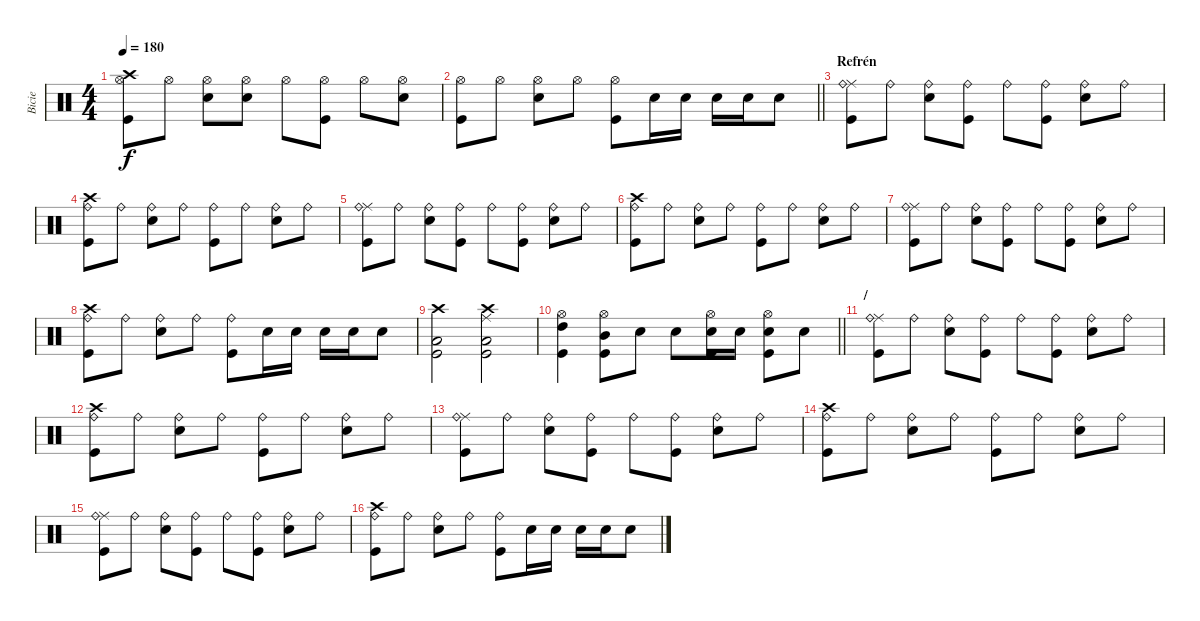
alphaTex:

\track ("Bicie" "Bicie") {instrument percussion}
\staff {score}
\articulation defaults
\ts (4 4)
\tempo 180
\clef neutral
\ks c
("Crash high (hit)" "Hi-Hat (open)" "Kick (hit)").8{dy f} "Hi-Hat (open)".8 ("Hi-Hat (open)" "Snare (hit) 2").8 ("Hi-Hat (open)" "Snare (hit) 2").8 "Hi-Hat (open)".8 ("Hi-Hat (open)" "Kick (hit)").8 "Hi-Hat (open)".8 ("Hi-Hat (open)" "Snare (hit) 2").8 |
\barLineRight lightlight
("Hi-Hat (open)" "Kick (hit)").8 "Hi-Hat (open)".8 ("Hi-Hat (open)" "Snare (hit) 2").8 "Hi-Hat (open)".8 ("Hi-Hat (open)" "Kick (hit)").8 "Snare (hit) 2".16 "Snare (hit) 2".16 "Snare (hit) 2".16 "Snare (hit) 2".16 "Snare (hit) 2".8 |
\section ("" "Refrén")
("Ride (middle)" "Ride (bell)" "Kick (hit)").8 "Ride (bell)".8 ("Ride (bell)" "Snare (hit) 2").8 ("Ride (bell)" "Kick (hit)").8 "Ride (bell)".8 ("Ride (bell)" "Kick (hit)").8 ("Ride (bell)" "Snare (hit) 2").8 "Ride (bell)".8 |
("Crash high (hit)" "Ride (bell)" "Kick (hit)").8 "Ride (bell)".8 ("Ride (bell)" "Snare (hit) 2").8 "Ride (bell)".8 ("Ride (bell)" "Kick (hit)").8 "Ride (bell)".8 ("Ride (bell)" "Snare (hit) 2").8 "Ride (bell)".8 |
("Ride (middle)" "Ride (bell)" "Kick (hit)").8 "Ride (bell)".8 ("Ride (bell)" "Snare (hit) 2").8 ("Ride (bell)" "Kick (hit)").8 "Ride (bell)".8 ("Ride (bell)" "Kick (hit)").8 ("Ride (bell)" "Snare (hit) 2").8 "Ride (bell)".8 |
("Crash high (hit)" "Ride (bell)" "Kick (hit)").8 "Ride (bell)".8 ("Ride (bell)" "Snare (hit) 2").8 "Ride (bell)".8 ("Ride (bell)" "Kick (hit)").8 "Ride (bell)".8 ("Ride (bell)" "Snare (hit) 2").8 "Ride (bell)".8 |
("Ride (middle)" "Ride (bell)" "Kick (hit)").8 "Ride (bell)".8 ("Ride (bell)" "Snare (hit) 2").8 ("Ride (bell)" "Kick (hit)").8 "Ride (bell)".8 ("Ride (bell)" "Kick (hit)").8 ("Ride (bell)" "Snare (hit) 2").8 "Ride (bell)".8 |
("Crash high (hit)" "Ride (bell)" "Kick (hit)").8 "Ride (bell)".8 ("Ride (bell)" "Snare (hit) 2").8 "Ride (bell)".8 ("Ride (bell)" "Kick (hit)").8 "Snare (hit) 2".16 "Snare (hit) 2".16 "Snare (hit) 2".16 "Snare (hit) 2".16 "Snare (hit) 2".8 |
("Crash high (hit)" "Low Tom (hit)" "Kick (hit)").2 ("Crash high (hit)" "Ride (middle)" "Low Tom (hit)" "Kick (hit)").2 |
\barLineRight lightlight
("Hi-Hat (open)" "High Tom (hit)" "Kick (hit)").4 ("Hi-Hat (open)" "Mid Tom (hit)" "Kick (hit)").8 "Snare (hit) 2".8 "Snare (hit) 2".8 ("Hi-Hat (open)" "Snare (hit) 2" "Kick (hit)").16 "Snare (hit) 2".16 ("Hi-Hat (open)" "Snare (hit) 2" "Kick (hit)").8 "Snare (hit) 2".8 |
\section ("" "/")
("Ride (middle)" "Ride (bell)" "Kick (hit)").8 "Ride (bell)".8 ("Ride (bell)" "Snare (hit) 2").8 ("Ride (bell)" "Kick (hit)").8 "Ride (bell)".8 ("Ride (bell)" "Kick (hit)").8 ("Ride (bell)" "Snare (hit) 2").8 "Ride (bell)".8 |
("Crash high (hit)" "Ride (bell)" "Kick (hit)").8 "Ride (bell)".8 ("Ride (bell)" "Snare (hit) 2").8 "Ride (bell)".8 ("Ride (bell)" "Kick (hit)").8 "Ride (bell)".8 ("Ride (bell)" "Snare (hit) 2").8 "Ride (bell)".8 |
("Ride (middle)" "Ride (bell)" "Kick (hit)").8 "Ride (bell)".8 ("Ride (bell)" "Snare (hit) 2").8 ("Ride (bell)" "Kick (hit)").8 "Ride (bell)".8 ("Ride (bell)" "Kick (hit)").8 ("Ride (bell)" "Snare (hit) 2").8 "Ride (bell)".8 |
("Crash high (hit)" "Ride (bell)" "Kick (hit)").8 "Ride (bell)".8 ("Ride (bell)" "Snare (hit) 2").8 "Ride (bell)".8 ("Ride (bell)" "Kick (hit)").8 "Ride (bell)".8 ("Ride (bell)" "Snare (hit) 2").8 "Ride (bell)".8 |
("Ride (middle)" "Ride (bell)" "Kick (hit)").8 "Ride (bell)".8 ("Ride (bell)" "Snare (hit) 2").8 ("Ride (bell)" "Kick (hit)").8 "Ride (bell)".8 ("Ride (bell)" "Kick (hit)").8 ("Ride (bell)" "Snare (hit) 2").8 "Ride (bell)".8 |
("Crash high (hit)" "Ride (bell)" "Kick (hit)").8 "Ride (bell)".8 ("Ride (bell)" "Snare (hit) 2").8 "Ride (bell)".8 ("Ride (bell)" "Kick (hit)").8 "Snare (hit) 2".16 "Snare (hit) 2".16 "Snare (hit) 2".16 "Snare (hit) 2".16 "Snare (hit) 2".8
